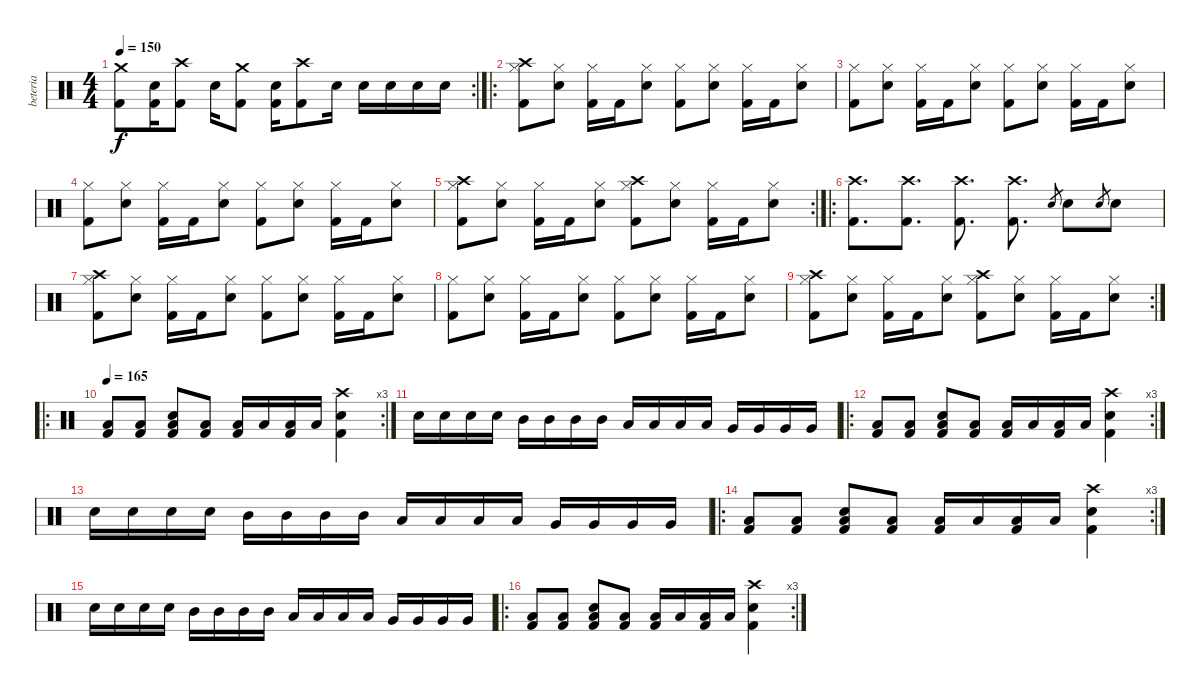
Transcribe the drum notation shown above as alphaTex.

\track ("beteria" "beteria") {instrument percussion}
\staff {score}
\articulation defaults
\rc 2
\ts (4 4)
\tempo 150
\clef neutral
\ks c
("Kick (hit) 2" "Crash medium (hit)").8{dy f} ("Kick (hit) 2" "Electric Snare (hit)").16 ("Kick (hit) 2" "Crash high (hit)").8 "Electric Snare (hit)".16 ("Kick (hit) 2" "Crash medium (hit)").8 ("Kick (hit) 2" "Electric Snare (hit)").16 ("Kick (hit) 2" "Crash high (hit)").8 "Electric Snare (hit)".16 "Electric Snare (hit)".16 "Electric Snare (hit)".16 "Electric Snare (hit)".16 "Electric Snare (hit)".16 |
\ro
("Kick (hit) 2" "Hi-Hat (closed)" "Crash high (hit)").8 ("Electric Snare (hit)" "Hi-Hat (closed)").8 ("Kick (hit) 2" "Hi-Hat (closed)").16 "Kick (hit) 2".16 ("Electric Snare (hit)" "Hi-Hat (closed)").8 ("Kick (hit) 2" "Hi-Hat (closed)").8 ("Electric Snare (hit)" "Hi-Hat (closed)").8 ("Kick (hit) 2" "Hi-Hat (closed)").16 "Kick (hit) 2".16 ("Electric Snare (hit)" "Hi-Hat (closed)").8 |
("Kick (hit) 2" "Hi-Hat (closed)").8 ("Electric Snare (hit)" "Hi-Hat (closed)").8 ("Kick (hit) 2" "Hi-Hat (closed)").16 "Kick (hit) 2".16 ("Electric Snare (hit)" "Hi-Hat (closed)").8 ("Kick (hit) 2" "Hi-Hat (closed)").8 ("Electric Snare (hit)" "Hi-Hat (closed)").8 ("Kick (hit) 2" "Hi-Hat (closed)").16 "Kick (hit) 2".16 ("Electric Snare (hit)" "Hi-Hat (closed)").8 |
("Kick (hit) 2" "Hi-Hat (closed)").8 ("Electric Snare (hit)" "Hi-Hat (closed)").8 ("Kick (hit) 2" "Hi-Hat (closed)").16 "Kick (hit) 2".16 ("Electric Snare (hit)" "Hi-Hat (closed)").8 ("Kick (hit) 2" "Hi-Hat (closed)").8 ("Electric Snare (hit)" "Hi-Hat (closed)").8 ("Kick (hit) 2" "Hi-Hat (closed)").16 "Kick (hit) 2".16 ("Electric Snare (hit)" "Hi-Hat (closed)").8 |
\rc 2
("Kick (hit) 2" "Hi-Hat (closed)" "Crash high (hit)").8 ("Electric Snare (hit)" "Hi-Hat (closed)").8 ("Kick (hit) 2" "Hi-Hat (closed)").16 "Kick (hit) 2".16 ("Electric Snare (hit)" "Hi-Hat (closed)").8 ("Kick (hit) 2" "Hi-Hat (closed)" "Crash high (hit)").8 ("Electric Snare (hit)" "Hi-Hat (closed)").8 ("Kick (hit) 2" "Hi-Hat (closed)").16 "Kick (hit) 2".16 ("Electric Snare (hit)" "Hi-Hat (closed)").8 |
\ro
("Kick (hit) 2" "Crash high (hit)").8{d} ("Kick (hit) 2" "Crash high (hit)").8{d} ("Kick (hit) 2" "Crash high (hit)").8{d} ("Kick (hit) 2" "Crash high (hit)").8{d} "Electric Snare (hit)".8{gr} "Electric Snare (hit)".8 "Electric Snare (hit)".8{gr} "Electric Snare (hit)".8 |
("Kick (hit) 2" "Hi-Hat (closed)" "Crash high (hit)").8 ("Electric Snare (hit)" "Hi-Hat (closed)").8 ("Kick (hit) 2" "Hi-Hat (closed)").16 "Kick (hit) 2".16 ("Electric Snare (hit)" "Hi-Hat (closed)").8 ("Kick (hit) 2" "Hi-Hat (closed)").8 ("Electric Snare (hit)" "Hi-Hat (closed)").8 ("Kick (hit) 2" "Hi-Hat (closed)").16 "Kick (hit) 2".16 ("Electric Snare (hit)" "Hi-Hat (closed)").8 |
("Kick (hit) 2" "Hi-Hat (closed)").8 ("Electric Snare (hit)" "Hi-Hat (closed)").8 ("Kick (hit) 2" "Hi-Hat (closed)").16 "Kick (hit) 2".16 ("Electric Snare (hit)" "Hi-Hat (closed)").8 ("Kick (hit) 2" "Hi-Hat (closed)").8 ("Electric Snare (hit)" "Hi-Hat (closed)").8 ("Kick (hit) 2" "Hi-Hat (closed)").16 "Kick (hit) 2".16 ("Electric Snare (hit)" "Hi-Hat (closed)").8 |
\rc 2
("Kick (hit) 2" "Hi-Hat (closed)" "Crash high (hit)").8 ("Electric Snare (hit)" "Hi-Hat (closed)").8 ("Kick (hit) 2" "Hi-Hat (closed)").16 "Kick (hit) 2".16 ("Electric Snare (hit)" "Hi-Hat (closed)").8 ("Kick (hit) 2" "Hi-Hat (closed)" "Crash high (hit)").8 ("Electric Snare (hit)" "Hi-Hat (closed)").8 ("Kick (hit) 2" "Hi-Hat (closed)").16 "Kick (hit) 2".16 ("Electric Snare (hit)" "Hi-Hat (closed)").8 |
\ro
\rc 3
\tempo 165
("Low Tom (hit)" "Kick (hit) 2").8 ("Low Tom (hit)" "Kick (hit) 2").8 ("Low Tom (hit)" "Electric Snare (hit)" "Kick (hit) 2").8 ("Low Tom (hit)" "Kick (hit) 2").8 ("Low Tom (hit)" "Kick (hit) 2").16 "Low Tom (hit)".16 ("Low Tom (hit)" "Kick (hit) 2").16 "Low Tom (hit)".16 ("Electric Snare (hit)" "Crash high (hit)" "Kick (hit) 2").4 |
"Electric Snare (hit)".16 "Electric Snare (hit)".16 "Electric Snare (hit)".16 "Electric Snare (hit)".16 "Mid Tom (hit)".16 "Mid Tom (hit)".16 "Mid Tom (hit)".16 "Mid Tom (hit)".16 "Low Tom (hit)".16 "Low Tom (hit)".16 "Low Tom (hit)".16 "Low Tom (hit)".16 "Very Low Tom (hit)".16 "Very Low Tom (hit)".16 "Very Low Tom (hit)".16 "Very Low Tom (hit)".16 |
\ro
\rc 3
("Low Tom (hit)" "Kick (hit) 2").8 ("Low Tom (hit)" "Kick (hit) 2").8 ("Low Tom (hit)" "Electric Snare (hit)" "Kick (hit) 2").8 ("Low Tom (hit)" "Kick (hit) 2").8 ("Low Tom (hit)" "Kick (hit) 2").16 "Low Tom (hit)".16 ("Low Tom (hit)" "Kick (hit) 2").16 "Low Tom (hit)".16 ("Electric Snare (hit)" "Crash high (hit)" "Kick (hit) 2").4 |
"Electric Snare (hit)".16 "Electric Snare (hit)".16 "Electric Snare (hit)".16 "Electric Snare (hit)".16 "Mid Tom (hit)".16 "Mid Tom (hit)".16 "Mid Tom (hit)".16 "Mid Tom (hit)".16 "Low Tom (hit)".16 "Low Tom (hit)".16 "Low Tom (hit)".16 "Low Tom (hit)".16 "Very Low Tom (hit)".16 "Very Low Tom (hit)".16 "Very Low Tom (hit)".16 "Very Low Tom (hit)".16 |
\ro
\rc 3
("Low Tom (hit)" "Kick (hit) 2").8 ("Low Tom (hit)" "Kick (hit) 2").8 ("Low Tom (hit)" "Electric Snare (hit)" "Kick (hit) 2").8 ("Low Tom (hit)" "Kick (hit) 2").8 ("Low Tom (hit)" "Kick (hit) 2").16 "Low Tom (hit)".16 ("Low Tom (hit)" "Kick (hit) 2").16 "Low Tom (hit)".16 ("Electric Snare (hit)" "Crash high (hit)" "Kick (hit) 2").4 |
"Electric Snare (hit)".16 "Electric Snare (hit)".16 "Electric Snare (hit)".16 "Electric Snare (hit)".16 "Mid Tom (hit)".16 "Mid Tom (hit)".16 "Mid Tom (hit)".16 "Mid Tom (hit)".16 "Low Tom (hit)".16 "Low Tom (hit)".16 "Low Tom (hit)".16 "Low Tom (hit)".16 "Very Low Tom (hit)".16 "Very Low Tom (hit)".16 "Very Low Tom (hit)".16 "Very Low Tom (hit)".16 |
\ro
\rc 3
("Low Tom (hit)" "Kick (hit) 2").8 ("Low Tom (hit)" "Kick (hit) 2").8 ("Low Tom (hit)" "Electric Snare (hit)" "Kick (hit) 2").8 ("Low Tom (hit)" "Kick (hit) 2").8 ("Low Tom (hit)" "Kick (hit) 2").16 "Low Tom (hit)".16 ("Low Tom (hit)" "Kick (hit) 2").16 "Low Tom (hit)".16 ("Electric Snare (hit)" "Crash high (hit)" "Kick (hit) 2").4
